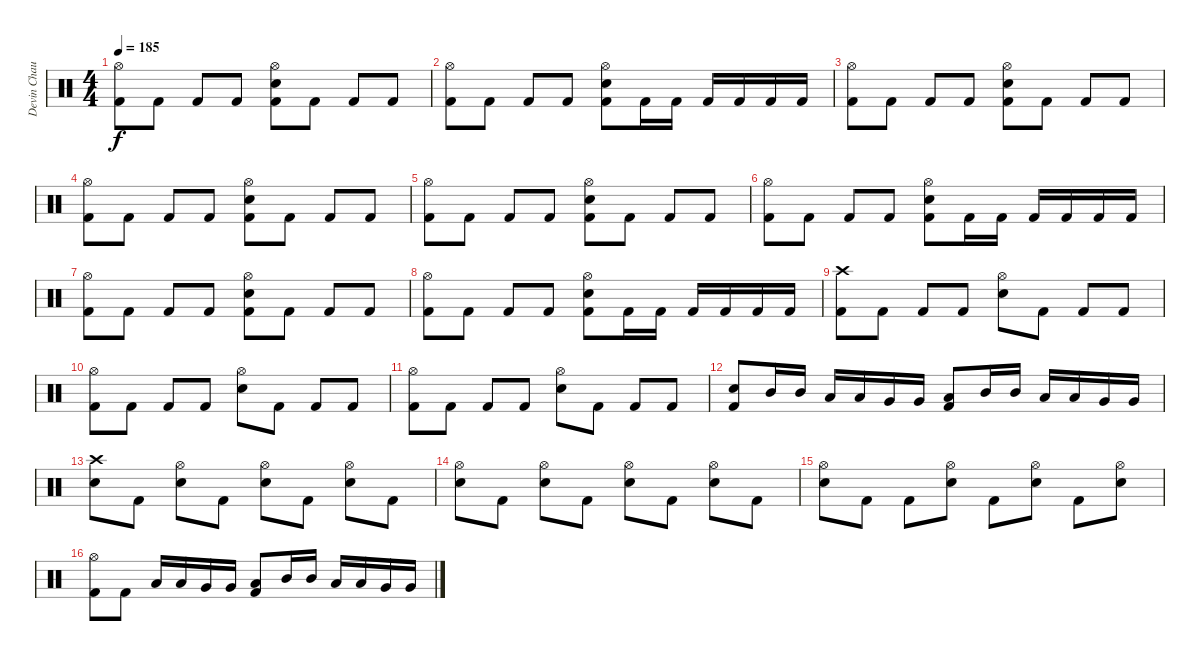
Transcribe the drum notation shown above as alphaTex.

\track ("Devin Chaulk" "Devin Chau") {instrument percussion}
\staff {score}
\articulation defaults
\ts (4 4)
\tempo 185
\clef neutral
\ks c
("Hi-Hat (open)" "Kick (hit) 2").8{dy f} "Kick (hit) 2".8 "Kick (hit) 2".8 "Kick (hit) 2".8 ("Hi-Hat (open)" "Snare (hit) 2" "Kick (hit) 2").8 "Kick (hit) 2".8 "Kick (hit) 2".8 "Kick (hit) 2".8 |
("Hi-Hat (open)" "Kick (hit) 2").8 "Kick (hit) 2".8 "Kick (hit) 2".8 "Kick (hit) 2".8 ("Hi-Hat (open)" "Snare (hit) 2" "Kick (hit) 2").8 "Kick (hit) 2".16 "Kick (hit) 2".16 "Kick (hit) 2".16 "Kick (hit) 2".16 "Kick (hit) 2".16 "Kick (hit) 2".16 |
("Hi-Hat (open)" "Kick (hit) 2").8 "Kick (hit) 2".8 "Kick (hit) 2".8 "Kick (hit) 2".8 ("Hi-Hat (open)" "Snare (hit) 2" "Kick (hit) 2").8 "Kick (hit) 2".8 "Kick (hit) 2".8 "Kick (hit) 2".8 |
("Hi-Hat (open)" "Kick (hit) 2").8 "Kick (hit) 2".8 "Kick (hit) 2".8 "Kick (hit) 2".8 ("Hi-Hat (open)" "Snare (hit) 2" "Kick (hit) 2").8 "Kick (hit) 2".8 "Kick (hit) 2".8 "Kick (hit) 2".8 |
("Hi-Hat (open)" "Kick (hit) 2").8 "Kick (hit) 2".8 "Kick (hit) 2".8 "Kick (hit) 2".8 ("Hi-Hat (open)" "Snare (hit) 2" "Kick (hit) 2").8 "Kick (hit) 2".8 "Kick (hit) 2".8 "Kick (hit) 2".8 |
("Hi-Hat (open)" "Kick (hit) 2").8 "Kick (hit) 2".8 "Kick (hit) 2".8 "Kick (hit) 2".8 ("Hi-Hat (open)" "Snare (hit) 2" "Kick (hit) 2").8 "Kick (hit) 2".16 "Kick (hit) 2".16 "Kick (hit) 2".16 "Kick (hit) 2".16 "Kick (hit) 2".16 "Kick (hit) 2".16 |
("Hi-Hat (open)" "Kick (hit) 2").8 "Kick (hit) 2".8 "Kick (hit) 2".8 "Kick (hit) 2".8 ("Hi-Hat (open)" "Snare (hit) 2" "Kick (hit) 2").8 "Kick (hit) 2".8 "Kick (hit) 2".8 "Kick (hit) 2".8 |
("Hi-Hat (open)" "Kick (hit) 2").8 "Kick (hit) 2".8 "Kick (hit) 2".8 "Kick (hit) 2".8 ("Hi-Hat (open)" "Snare (hit) 2" "Kick (hit) 2").8 "Kick (hit) 2".16 "Kick (hit) 2".16 "Kick (hit) 2".16 "Kick (hit) 2".16 "Kick (hit) 2".16 "Kick (hit) 2".16 |
("Crash high (hit)" "Kick (hit) 2").8 "Kick (hit) 2".8 "Kick (hit) 2".8 "Kick (hit) 2".8 ("Hi-Hat (open)" "Snare (hit) 2").8 "Kick (hit) 2".8 "Kick (hit) 2".8 "Kick (hit) 2".8 |
("Hi-Hat (open)" "Kick (hit) 2").8 "Kick (hit) 2".8 "Kick (hit) 2".8 "Kick (hit) 2".8 ("Hi-Hat (open)" "Snare (hit) 2").8 "Kick (hit) 2".8 "Kick (hit) 2".8 "Kick (hit) 2".8 |
("Hi-Hat (open)" "Kick (hit) 2").8 "Kick (hit) 2".8 "Kick (hit) 2".8 "Kick (hit) 2".8 ("Hi-Hat (open)" "Snare (hit) 2").8 "Kick (hit) 2".8 "Kick (hit) 2".8 "Kick (hit) 2".8 |
("Snare (hit) 2" "Kick (hit) 2").8 "Mid Tom (hit)".16 "Mid Tom (hit)".16 "Low Tom (hit)".16 "Low Tom (hit)".16 "Very Low Tom (hit)".16 "Very Low Tom (hit)".16 ("Low Tom (hit)" "Kick (hit) 2").8 "Mid Tom (hit)".16 "Mid Tom (hit)".16 "Low Tom (hit)".16 "Low Tom (hit)".16 "Very Low Tom (hit)".16 "Very Low Tom (hit)".16 |
("Crash high (hit)" "Snare (hit) 2").8 "Kick (hit) 2".8 ("Hi-Hat (open)" "Snare (hit) 2").8 "Kick (hit) 2".8 ("Hi-Hat (open)" "Snare (hit) 2").8 "Kick (hit) 2".8 ("Hi-Hat (open)" "Snare (hit) 2").8 "Kick (hit) 2".8 |
("Hi-Hat (open)" "Snare (hit) 2").8 "Kick (hit) 2".8 ("Hi-Hat (open)" "Snare (hit) 2").8 "Kick (hit) 2".8 ("Hi-Hat (open)" "Snare (hit) 2").8 "Kick (hit) 2".8 ("Hi-Hat (open)" "Snare (hit) 2").8 "Kick (hit) 2".8 |
("Hi-Hat (open)" "Snare (hit) 2").8 "Kick (hit) 2".8 "Kick (hit) 2".8 ("Hi-Hat (open)" "Snare (hit) 2").8 "Kick (hit) 2".8 ("Hi-Hat (open)" "Snare (hit) 2").8 "Kick (hit) 2".8 ("Hi-Hat (open)" "Snare (hit) 2").8 |
("Hi-Hat (open)" "Kick (hit) 2").8 "Kick (hit) 2".8 "Low Tom (hit)".16 "Low Tom (hit)".16 "Very Low Tom (hit)".16 "Very Low Tom (hit)".16 ("Low Tom (hit)" "Kick (hit) 2").8 "Mid Tom (hit)".16 "Mid Tom (hit)".16 "Low Tom (hit)".16 "Low Tom (hit)".16 "Very Low Tom (hit)".16 "Very Low Tom (hit)".16
